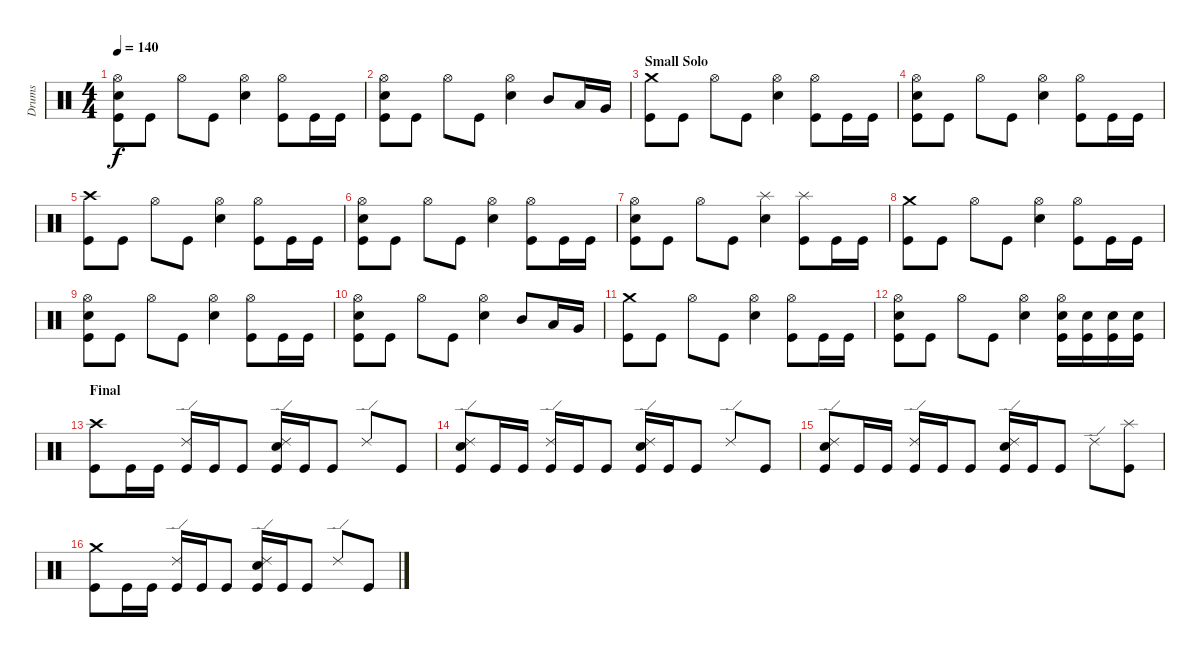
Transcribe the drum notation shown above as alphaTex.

\track ("Drums" "Drums") {instrument percussion}
\staff {score}
\articulation defaults
\ts (4 4)
\tempo 140
\clef neutral
\ks c
("Hi-Hat (open)" "Electric Snare (hit)" "Kick (hit)").8{dy f} "Kick (hit)".8 "Hi-Hat (open)".8 "Kick (hit)".8 ("Hi-Hat (open)" "Electric Snare (hit)").4 ("Hi-Hat (open)" "Kick (hit)").8 "Kick (hit)".16 "Kick (hit)".16 |
("Hi-Hat (open)" "Electric Snare (hit)" "Kick (hit)").8 "Kick (hit)".8 "Hi-Hat (open)".8 "Kick (hit)".8 ("Hi-Hat (open)" "Electric Snare (hit)").4 "Mid Tom (hit)".8 "Low Tom (hit)".16 "Very Low Tom (hit)".16 |
\section ("" "Small Solo")
("Crash medium (hit)" "Kick (hit)").8 "Kick (hit)".8 "Hi-Hat (open)".8 "Kick (hit)".8 ("Hi-Hat (open)" "Electric Snare (hit)").4 ("Hi-Hat (open)" "Kick (hit)").8 "Kick (hit)".16 "Kick (hit)".16 |
("Hi-Hat (open)" "Electric Snare (hit)" "Kick (hit)").8 "Kick (hit)".8 "Hi-Hat (open)".8 "Kick (hit)".8 ("Hi-Hat (open)" "Electric Snare (hit)").4 ("Hi-Hat (open)" "Kick (hit)").8 "Kick (hit)".16 "Kick (hit)".16 |
("Crash high (hit)" "Kick (hit)").8 "Kick (hit)".8 "Hi-Hat (open)".8 "Kick (hit)".8 ("Hi-Hat (open)" "Electric Snare (hit)").4 ("Hi-Hat (open)" "Kick (hit)").8 "Kick (hit)".16 "Kick (hit)".16 |
("Hi-Hat (open)" "Electric Snare (hit)" "Kick (hit)").8 "Kick (hit)".8 "Hi-Hat (open)".8 "Kick (hit)".8 ("Hi-Hat (open)" "Electric Snare (hit)").4 ("Hi-Hat (open)" "Kick (hit)").8 "Kick (hit)".16 "Kick (hit)".16 |
("Hi-Hat (open)" "Electric Snare (hit)" "Kick (hit)").8 "Kick (hit)".8 "Hi-Hat (open)".8 "Kick (hit)".8 ("Splash (hit)" "Electric Snare (hit)").4 ("Splash (hit)" "Kick (hit)").8 "Kick (hit)".16 "Kick (hit)".16 |
("Crash medium (hit)" "Kick (hit)").8 "Kick (hit)".8 "Hi-Hat (open)".8 "Kick (hit)".8 ("Hi-Hat (open)" "Electric Snare (hit)").4 ("Hi-Hat (open)" "Kick (hit)").8 "Kick (hit)".16 "Kick (hit)".16 |
("Hi-Hat (open)" "Electric Snare (hit)" "Kick (hit)").8 "Kick (hit)".8 "Hi-Hat (open)".8 "Kick (hit)".8 ("Hi-Hat (open)" "Electric Snare (hit)").4 ("Hi-Hat (open)" "Kick (hit)").8 "Kick (hit)".16 "Kick (hit)".16 |
("Hi-Hat (open)" "Electric Snare (hit)" "Kick (hit)").8 "Kick (hit)".8 "Hi-Hat (open)".8 "Kick (hit)".8 ("Hi-Hat (open)" "Electric Snare (hit)").4 "Mid Tom (hit)".8 "Low Tom (hit)".16 "Very Low Tom (hit)".16 |
("Crash medium (hit)" "Kick (hit)").8 "Kick (hit)".8 "Hi-Hat (open)".8 "Kick (hit)".8 ("Hi-Hat (open)" "Electric Snare (hit)").4 ("Hi-Hat (open)" "Kick (hit)").8 "Kick (hit)".16 "Kick (hit)".16 |
("Hi-Hat (open)" "Electric Snare (hit)" "Kick (hit)").8 "Kick (hit)".8 "Hi-Hat (open)".8 "Kick (hit)".8 ("Hi-Hat (open)" "Electric Snare (hit)").4 ("Hi-Hat (open)" "Electric Snare (hit)" "Kick (hit)").16 ("Electric Snare (hit)" "Kick (hit)").16 ("Electric Snare (hit)" "Kick (hit)").16 ("Electric Snare (hit)" "Kick (hit)").16 |
\section ("" "Final")
("Crash high (hit)" "Kick (hit)").8 "Kick (hit)".16 "Kick (hit)".16 ("Ride (edge) 2" "Kick (hit)").16 "Kick (hit)".16 "Kick (hit)".8 ("Ride (edge) 2" "Electric Snare (hit)" "Kick (hit)").16 "Kick (hit)".16 "Kick (hit)".8 "Ride (edge) 2".8 "Kick (hit)".8 |
("Ride (edge) 2" "Electric Snare (hit)" "Kick (hit)").8 "Kick (hit)".16 "Kick (hit)".16 ("Ride (edge) 2" "Kick (hit)").16 "Kick (hit)".16 "Kick (hit)".8 ("Ride (edge) 2" "Electric Snare (hit)" "Kick (hit)").16 "Kick (hit)".16 "Kick (hit)".8 "Ride (edge) 2".8 "Kick (hit)".8 |
("Ride (edge) 2" "Electric Snare (hit)" "Kick (hit)").8 "Kick (hit)".16 "Kick (hit)".16 ("Ride (edge) 2" "Kick (hit)").16 "Kick (hit)".16 "Kick (hit)".8 ("Ride (edge) 2" "Electric Snare (hit)" "Kick (hit)").16 "Kick (hit)".16 "Kick (hit)".8 "Ride (edge) 2".8 ("Splash (hit)" "Kick (hit)").8 |
("Crash medium (hit)" "Kick (hit)").8 "Kick (hit)".16 "Kick (hit)".16 ("Ride (edge) 2" "Kick (hit)").16 "Kick (hit)".16 "Kick (hit)".8 ("Ride (edge) 2" "Electric Snare (hit)" "Kick (hit)").16 "Kick (hit)".16 "Kick (hit)".8 "Ride (edge) 2".8 "Kick (hit)".8
